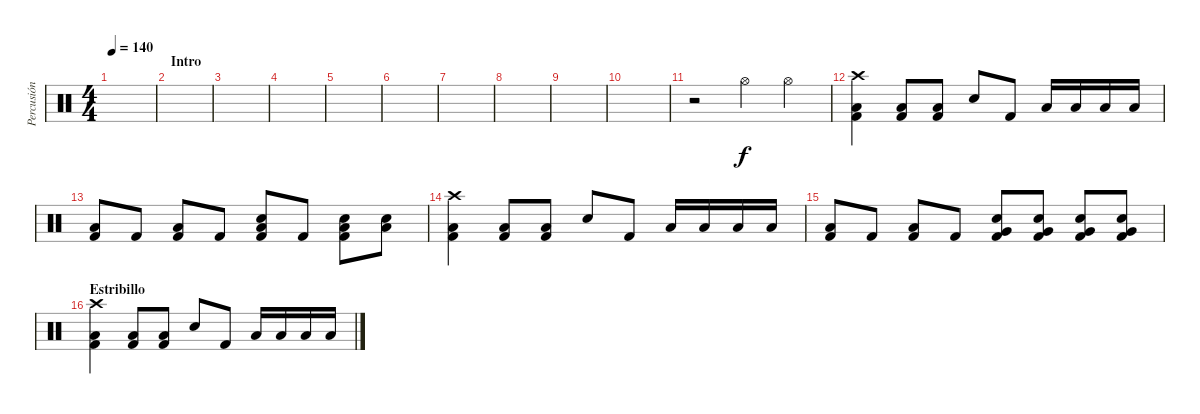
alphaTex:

\track ("Percusión" "Percusión") {instrument percussion}
\staff {score}
\articulation defaults
\ts (4 4)
\tempo 140
\clef neutral
\ks c
|
\section ("" "Intro")
|
|
|
|
|
|
|
|
|
r.2 "Hi-Hat (open)".4 "Hi-Hat (open)".4 |
("Crash high (hit)" "Low Floor Tom (hit)" "Kick (hit) 2").4 ("Low Floor Tom (hit)" "Kick (hit) 2").8 ("Low Floor Tom (hit)" "Kick (hit) 2").8 "Electric Snare (hit)".8 "Kick (hit) 2".8 "Low Floor Tom (hit)".16 "Low Floor Tom (hit)".16 "Low Floor Tom (hit)".16 "Low Floor Tom (hit)".16 |
("Low Floor Tom (hit)" "Kick (hit) 2").8 "Kick (hit) 2".8 ("Low Floor Tom (hit)" "Kick (hit) 2").8 "Kick (hit) 2".8 ("Electric Snare (hit)" "Low Floor Tom (hit)" "Kick (hit) 2").8 "Kick (hit) 2".8 ("Electric Snare (hit)" "Low Floor Tom (hit)" "Kick (hit) 2").8 ("Electric Snare (hit)" "Low Floor Tom (hit)").8 |
("Crash high (hit)" "Low Floor Tom (hit)" "Kick (hit) 2").4 ("Low Floor Tom (hit)" "Kick (hit) 2").8 ("Low Floor Tom (hit)" "Kick (hit) 2").8 "Electric Snare (hit)".8 "Kick (hit) 2".8 "Low Floor Tom (hit)".16 "Low Floor Tom (hit)".16 "Low Floor Tom (hit)".16 "Low Floor Tom (hit)".16 |
("Low Floor Tom (hit)" "Kick (hit) 2").8 "Kick (hit) 2".8 ("Low Floor Tom (hit)" "Kick (hit) 2").8 "Kick (hit) 2".8 ("Electric Snare (hit)" "Very Low Tom (hit)" "Kick (hit) 2").8 ("Electric Snare (hit)" "Very Low Tom (hit)" "Kick (hit) 2").8 ("Electric Snare (hit)" "Very Low Tom (hit)" "Kick (hit) 2").8 ("Electric Snare (hit)" "Very Low Tom (hit)" "Kick (hit) 2").8 |
\section ("" "Estribillo")
("Crash high (hit)" "Low Floor Tom (hit)" "Kick (hit) 2").4 ("Low Floor Tom (hit)" "Kick (hit) 2").8 ("Low Floor Tom (hit)" "Kick (hit) 2").8 "Electric Snare (hit)".8 "Kick (hit) 2".8 "Low Floor Tom (hit)".16 "Low Floor Tom (hit)".16 "Low Floor Tom (hit)".16 "Low Floor Tom (hit)".16
